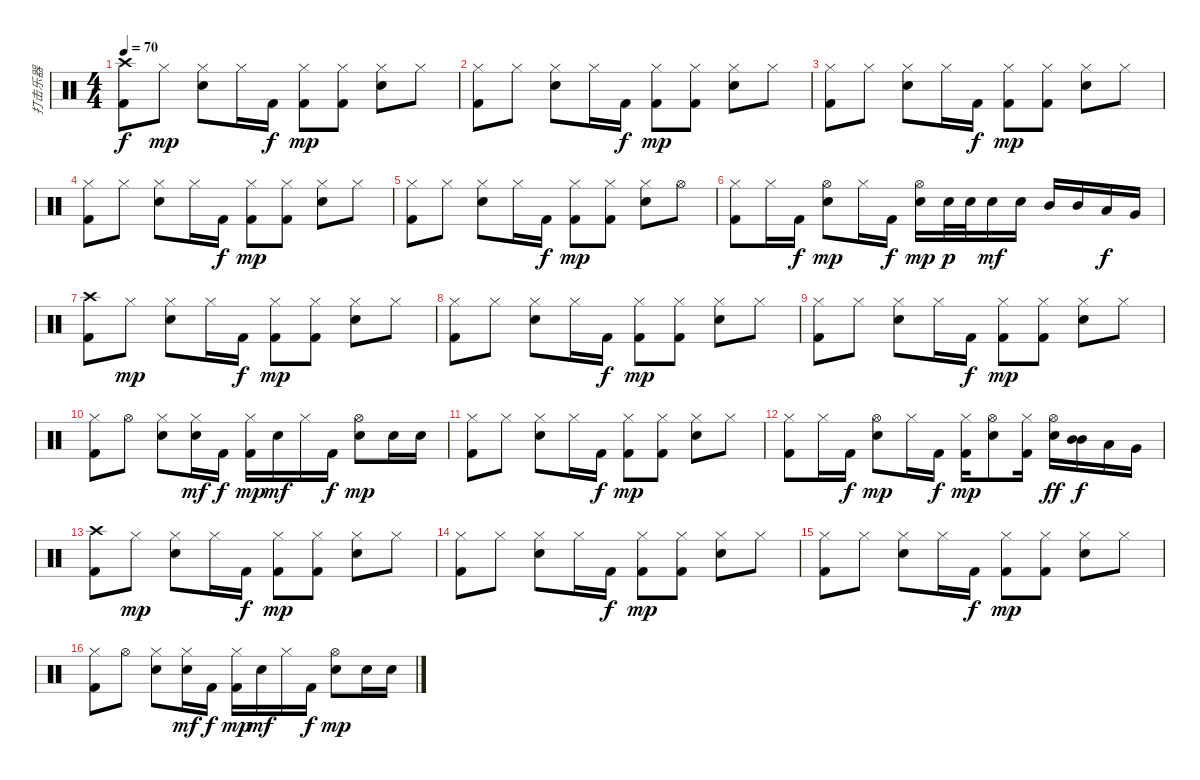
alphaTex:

\track ("打击乐器" "打击乐器") {instrument percussion}
\staff {score}
\articulation defaults
\ts (4 4)
\tempo 70
\clef neutral
\ks c
("Crash high (hit)" "Kick (hit) 2").8{dy f} "Hi-Hat (closed)".8{dy mp} ("Hi-Hat (closed)" "Electric Snare (hit)").8 "Hi-Hat (closed)".16 "Kick (hit) 2".16{dy f} ("Hi-Hat (closed)" "Kick (hit) 2").8{dy mp} ("Hi-Hat (closed)" "Kick (hit) 2").8 ("Hi-Hat (closed)" "Electric Snare (hit)").8 "Hi-Hat (closed)".8 |
("Hi-Hat (closed)" "Kick (hit) 2").8 "Hi-Hat (closed)".8 ("Hi-Hat (closed)" "Electric Snare (hit)").8 "Hi-Hat (closed)".16 "Kick (hit) 2".16{dy f} ("Hi-Hat (closed)" "Kick (hit) 2").8{dy mp} ("Hi-Hat (closed)" "Kick (hit) 2").8 ("Hi-Hat (closed)" "Electric Snare (hit)").8 "Hi-Hat (closed)".8 |
("Hi-Hat (closed)" "Kick (hit) 2").8 "Hi-Hat (closed)".8 ("Hi-Hat (closed)" "Electric Snare (hit)").8 "Hi-Hat (closed)".16 "Kick (hit) 2".16{dy f} ("Hi-Hat (closed)" "Kick (hit) 2").8{dy mp} ("Hi-Hat (closed)" "Kick (hit) 2").8 ("Hi-Hat (closed)" "Electric Snare (hit)").8 "Hi-Hat (closed)".8 |
("Hi-Hat (closed)" "Kick (hit) 2").8 "Hi-Hat (closed)".8 ("Hi-Hat (closed)" "Electric Snare (hit)").8 "Hi-Hat (closed)".16 "Kick (hit) 2".16{dy f} ("Hi-Hat (closed)" "Kick (hit) 2").8{dy mp} ("Hi-Hat (closed)" "Kick (hit) 2").8 ("Hi-Hat (closed)" "Electric Snare (hit)").8 "Hi-Hat (closed)".8 |
("Hi-Hat (closed)" "Kick (hit) 2").8 "Hi-Hat (closed)".8 ("Hi-Hat (closed)" "Electric Snare (hit)").8 "Hi-Hat (closed)".16 "Kick (hit) 2".16{dy f} ("Hi-Hat (closed)" "Kick (hit) 2").8{dy mp} ("Hi-Hat (closed)" "Kick (hit) 2").8 ("Hi-Hat (closed)" "Electric Snare (hit)").8 "Hi-Hat (open)".8 |
("Hi-Hat (closed)" "Kick (hit) 2").8 "Hi-Hat (closed)".16 "Kick (hit) 2".16{dy f} ("Hi-Hat (open)" "Electric Snare (hit)").8{dy mp} "Hi-Hat (closed)".16 "Kick (hit) 2".16{dy f} ("Hi-Hat (open)" "Electric Snare (hit)").16{dy mp} "Electric Snare (hit)".32{dy p} "Electric Snare (hit)".32 "Electric Snare (hit)".16{dy mf} "Electric Snare (hit)".16 "Mid Tom (hit)".16 "Mid Tom (hit)".16 "Low Tom (hit)".16{dy f} "Very Low Tom (hit)".16 |
("Crash high (hit)" "Kick (hit) 2").8 "Hi-Hat (closed)".8{dy mp} ("Hi-Hat (closed)" "Electric Snare (hit)").8 "Hi-Hat (closed)".16 "Kick (hit) 2".16{dy f} ("Hi-Hat (closed)" "Kick (hit) 2").8{dy mp} ("Hi-Hat (closed)" "Kick (hit) 2").8 ("Hi-Hat (closed)" "Electric Snare (hit)").8 "Hi-Hat (closed)".8 |
("Hi-Hat (closed)" "Kick (hit) 2").8 "Hi-Hat (closed)".8 ("Hi-Hat (closed)" "Electric Snare (hit)").8 "Hi-Hat (closed)".16 "Kick (hit) 2".16{dy f} ("Hi-Hat (closed)" "Kick (hit) 2").8{dy mp} ("Hi-Hat (closed)" "Kick (hit) 2").8 ("Hi-Hat (closed)" "Electric Snare (hit)").8 "Hi-Hat (closed)".8 |
("Hi-Hat (closed)" "Kick (hit) 2").8 "Hi-Hat (closed)".8 ("Hi-Hat (closed)" "Electric Snare (hit)").8 "Hi-Hat (closed)".16 "Kick (hit) 2".16{dy f} ("Hi-Hat (closed)" "Kick (hit) 2").8{dy mp} ("Hi-Hat (closed)" "Kick (hit) 2").8 ("Hi-Hat (closed)" "Electric Snare (hit)").8 "Hi-Hat (closed)".8 |
("Hi-Hat (closed)" "Kick (hit) 2").8 "Hi-Hat (open)".8 ("Hi-Hat (closed)" "Electric Snare (hit)").8 ("Hi-Hat (closed)" "Electric Snare (hit)").16{dy mf} "Kick (hit) 2".16{dy f} ("Hi-Hat (closed)" "Kick (hit) 2").16{dy mp} "Electric Snare (hit)".16{dy mf} "Hi-Hat (closed)".16 "Kick (hit) 2".16{dy f} ("Hi-Hat (open)" "Electric Snare (hit)").8{dy mp} "Electric Snare (hit)".16 "Electric Snare (hit)".16 |
("Hi-Hat (closed)" "Kick (hit) 2").8 "Hi-Hat (closed)".8 ("Hi-Hat (closed)" "Electric Snare (hit)").8 "Hi-Hat (closed)".16 "Kick (hit) 2".16{dy f} ("Hi-Hat (closed)" "Kick (hit) 2").8{dy mp} ("Hi-Hat (closed)" "Kick (hit) 2").8 ("Hi-Hat (closed)" "Electric Snare (hit)").8 "Hi-Hat (closed)".8 |
("Hi-Hat (closed)" "Kick (hit) 2").8 "Hi-Hat (closed)".16 "Kick (hit) 2".16{dy f} ("Hi-Hat (open)" "Electric Snare (hit)").8{dy mp} "Hi-Hat (closed)".16 "Kick (hit) 2".16{dy f} ("Hi-Hat (closed)" "Kick (hit) 2").16{dy mp} ("Hi-Hat (open)" "Electric Snare (hit)").8 ("Hi-Hat (closed)" "Kick (hit) 2").16 ("Hi-Hat (open)" "Electric Snare (hit)").16{dy ff} ("Mid Tom (hit)" "Mid Tom (hit)").16{bd 60 dy f} "Low Tom (hit)".16 "Very Low Tom (hit)".16 |
("Crash high (hit)" "Kick (hit) 2").8 "Hi-Hat (closed)".8{dy mp} ("Hi-Hat (closed)" "Electric Snare (hit)").8 "Hi-Hat (closed)".16 "Kick (hit) 2".16{dy f} ("Hi-Hat (closed)" "Kick (hit) 2").8{dy mp} ("Hi-Hat (closed)" "Kick (hit) 2").8 ("Hi-Hat (closed)" "Electric Snare (hit)").8 "Hi-Hat (closed)".8 |
("Hi-Hat (closed)" "Kick (hit) 2").8 "Hi-Hat (closed)".8 ("Hi-Hat (closed)" "Electric Snare (hit)").8 "Hi-Hat (closed)".16 "Kick (hit) 2".16{dy f} ("Hi-Hat (closed)" "Kick (hit) 2").8{dy mp} ("Hi-Hat (closed)" "Kick (hit) 2").8 ("Hi-Hat (closed)" "Electric Snare (hit)").8 "Hi-Hat (closed)".8 |
("Hi-Hat (closed)" "Kick (hit) 2").8 "Hi-Hat (closed)".8 ("Hi-Hat (closed)" "Electric Snare (hit)").8 "Hi-Hat (closed)".16 "Kick (hit) 2".16{dy f} ("Hi-Hat (closed)" "Kick (hit) 2").8{dy mp} ("Hi-Hat (closed)" "Kick (hit) 2").8 ("Hi-Hat (closed)" "Electric Snare (hit)").8 "Hi-Hat (closed)".8 |
("Hi-Hat (closed)" "Kick (hit) 2").8 "Hi-Hat (open)".8 ("Hi-Hat (closed)" "Electric Snare (hit)").8 ("Hi-Hat (closed)" "Electric Snare (hit)").16{dy mf} "Kick (hit) 2".16{dy f} ("Hi-Hat (closed)" "Kick (hit) 2").16{dy mp} "Electric Snare (hit)".16{dy mf} "Hi-Hat (closed)".16 "Kick (hit) 2".16{dy f} ("Hi-Hat (open)" "Electric Snare (hit)").8{dy mp} "Electric Snare (hit)".16 "Electric Snare (hit)".16
